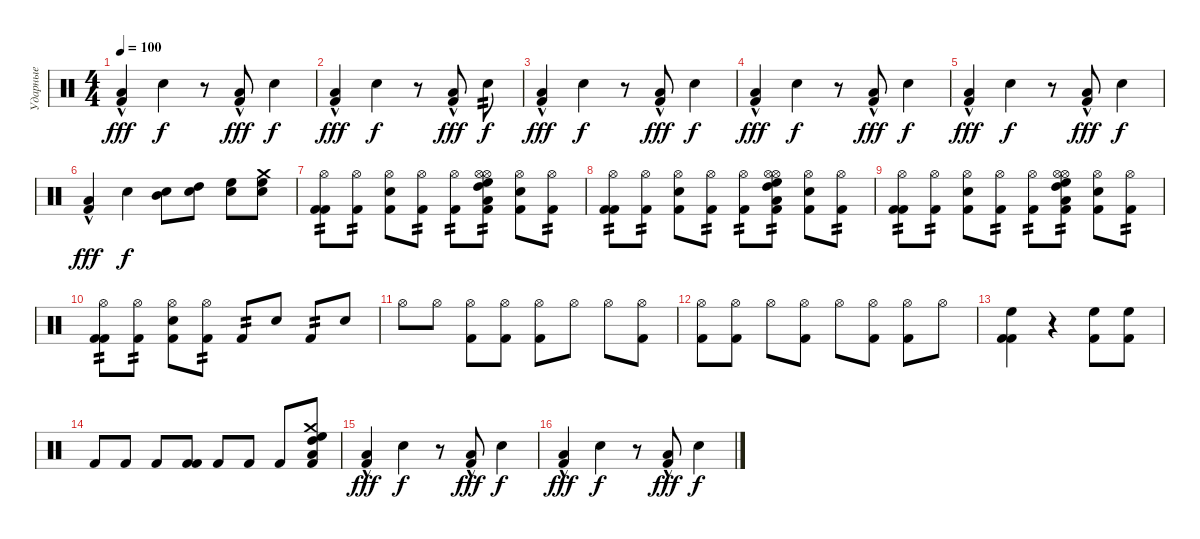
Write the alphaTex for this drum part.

\track ("Ударные" "Ударные") {instrument percussion}
\staff {score}
\articulation defaults
\ts (4 4)
\tempo 100
\clef neutral
\ks c
("Low Floor Tom (hit)" "Kick (hit) 2"{hac}).4{dy fff} "Electric Snare (hit)".4{dy f} r.8 ("Low Floor Tom (hit)" "Kick (hit) 2"{hac}).8{dy fff} "Electric Snare (hit)".4{dy f} |
("Low Floor Tom (hit)" "Kick (hit) 2"{hac}).4{dy fff} "Electric Snare (hit)".4{dy f} r.8 ("Low Floor Tom (hit)" "Kick (hit) 2"{hac}).8{dy fff} "Electric Snare (hit)".8{tp 2 dy f} |
("Low Floor Tom (hit)" "Kick (hit) 2"{hac}).4{dy fff} "Electric Snare (hit)".4{dy f} r.8 ("Low Floor Tom (hit)" "Kick (hit) 2"{hac}).8{dy fff} "Electric Snare (hit)".4{dy f} |
("Low Floor Tom (hit)" "Kick (hit) 2"{hac}).4{dy fff} "Electric Snare (hit)".4{dy f} r.8 ("Low Floor Tom (hit)" "Kick (hit) 2"{hac}).8{dy fff} "Electric Snare (hit)".4{dy f} |
("Low Floor Tom (hit)" "Kick (hit) 2"{hac}).4{dy fff} "Electric Snare (hit)".4{dy f} r.8 ("Low Floor Tom (hit)" "Kick (hit) 2"{hac}).8{dy fff} "Electric Snare (hit)".4{dy f} |
("Low Floor Tom (hit)" "Kick (hit) 2"{hac}).4{dy fff} "Electric Snare (hit)".4{dy f} ("Snare (hit) 2" "Mid Tom (hit)").8 ("Snare (hit) 2" "High Tom (hit)").8 ("Snare (hit) 2" "High Floor Tom (hit)").8 ("Snare (hit) 2" "High Floor Tom (hit)" "Crash medium (hit)").8 |
("Hi-Hat (open)" "Kick (hit) 2" "Kick (hit) 2").8{tp 2} ("Hi-Hat (open)" "Kick (hit) 2").8{tp 2} ("Hi-Hat (open)" "Kick (hit) 2" "Snare (hit) 2").8 ("Hi-Hat (open)" "Kick (hit) 2").8{tp 2} ("Hi-Hat (open)" "Kick (hit) 2").8{tp 2} ("Hi-Hat (open)" "Hi-Hat (open)" "Kick (hit) 2" "High Floor Tom (hit)" "High Tom (hit)" "Low Floor Tom (hit)").8{tp 2} ("Hi-Hat (open)" "Kick (hit) 2" "Snare (hit) 2").8 ("Hi-Hat (open)" "Kick (hit) 2").8{tp 2} |
("Hi-Hat (open)" "Kick (hit) 2" "Kick (hit) 2").8{tp 2} ("Hi-Hat (open)" "Kick (hit) 2").8{tp 2} ("Hi-Hat (open)" "Kick (hit) 2" "Snare (hit) 2").8 ("Hi-Hat (open)" "Kick (hit) 2").8{tp 2} ("Hi-Hat (open)" "Kick (hit) 2").8{tp 2} ("Hi-Hat (open)" "Hi-Hat (open)" "Kick (hit) 2" "High Floor Tom (hit)" "High Tom (hit)" "Low Floor Tom (hit)").8{tp 2} ("Hi-Hat (open)" "Kick (hit) 2" "Snare (hit) 2").8 ("Hi-Hat (open)" "Kick (hit) 2").8{tp 2} |
("Hi-Hat (open)" "Kick (hit) 2" "Kick (hit) 2").8{tp 2} ("Hi-Hat (open)" "Kick (hit) 2").8{tp 2} ("Hi-Hat (open)" "Kick (hit) 2" "Snare (hit) 2").8 ("Hi-Hat (open)" "Kick (hit) 2").8{tp 2} ("Hi-Hat (open)" "Kick (hit) 2").8{tp 2} ("Hi-Hat (open)" "Hi-Hat (open)" "Kick (hit) 2" "High Floor Tom (hit)" "High Tom (hit)" "Low Floor Tom (hit)").8{tp 2} ("Hi-Hat (open)" "Kick (hit) 2" "Snare (hit) 2").8 ("Hi-Hat (open)" "Kick (hit) 2").8{tp 2} |
("Hi-Hat (open)" "Kick (hit) 2" "Kick (hit) 2").8{tp 2} ("Hi-Hat (open)" "Kick (hit) 2").8{tp 2} ("Hi-Hat (open)" "Kick (hit) 2" "Snare (hit) 2").8 ("Hi-Hat (open)" "Kick (hit) 2").8{tp 2} "Kick (hit) 2".8{tp 2} "Snare (hit) 2".8 "Kick (hit) 2".8{tp 2} "Snare (hit) 2".8 |
"Hi-Hat (open)".8 "Hi-Hat (open)".8 ("Kick (hit) 2" "Hi-Hat (open)").8 ("Kick (hit) 2" "Hi-Hat (open)").8 ("Kick (hit) 2" "Hi-Hat (open)").8 "Hi-Hat (open)".8 "Hi-Hat (open)".8 ("Kick (hit) 2" "Hi-Hat (open)").8 |
("Kick (hit) 2" "Hi-Hat (open)").8 ("Kick (hit) 2" "Hi-Hat (open)").8 "Hi-Hat (open)".8 ("Kick (hit) 2" "Hi-Hat (open)").8 "Hi-Hat (open)".8 ("Kick (hit) 2" "Hi-Hat (open)").8 ("Kick (hit) 2" "Hi-Hat (open)").8 "Hi-Hat (open)".8 |
("Kick (hit) 2" "Kick (hit) 2" "High Floor Tom (hit)").4 r.4 ("Kick (hit) 2" "High Floor Tom (hit)").8 ("Kick (hit) 2" "High Floor Tom (hit)").8 |
"Kick (hit) 2".8 "Kick (hit) 2".8 "Kick (hit) 2".8 ("Kick (hit) 2" "Kick (hit) 2").8 "Kick (hit) 2".8 "Kick (hit) 2".8 "Kick (hit) 2".8 ("Kick (hit) 2" "High Floor Tom (hit)" "High Tom (hit)" "Low Tom (hit)" "Crash medium (hit)").8 |
("Low Floor Tom (hit)" "Kick (hit) 2"{hac}).4{dy fff} "Electric Snare (hit)".4{dy f} r.8 ("Low Floor Tom (hit)" "Kick (hit) 2"{hac}).8{dy fff} "Electric Snare (hit)".4{dy f} |
("Low Floor Tom (hit)" "Kick (hit) 2"{hac}).4{dy fff} "Electric Snare (hit)".4{dy f} r.8 ("Low Floor Tom (hit)" "Kick (hit) 2"{hac}).8{dy fff} "Electric Snare (hit)".4{dy f}
